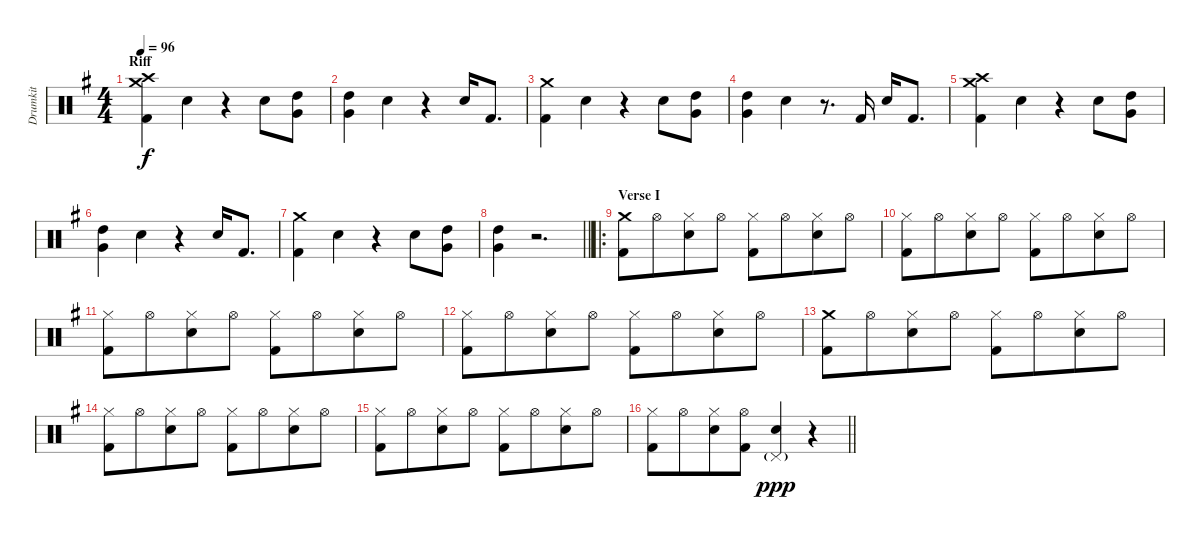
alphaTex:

\track ("Drumkit" "Drumkit") {instrument percussion}
\staff {score}
\articulation defaults
\ts (4 4)
\section ("" "Riff")
\tempo 96
\clef neutral
\ks eminor
("Crash medium (hit)" "Crash high (hit)" "Kick (hit) 2").4{dy f} "Electric Snare (hit)".4 r.4 "Electric Snare (hit)".8 ("Very Low Tom (hit)" "High Tom (hit)").8 |
("Very Low Tom (hit)" "High Tom (hit)").4 "Electric Snare (hit)".4 r.4 "Electric Snare (hit)".16 "Kick (hit) 2".8{d} |
("Crash medium (hit)" "Kick (hit) 2").4 "Electric Snare (hit)".4 r.4 "Electric Snare (hit)".8 ("Very Low Tom (hit)" "High Tom (hit)").8 |
("Very Low Tom (hit)" "High Tom (hit)").4 "Electric Snare (hit)".4 r.8{d} "Kick (hit) 2".16 "Electric Snare (hit)".16 "Kick (hit) 2".8{d} |
("Crash medium (hit)" "Crash high (hit)" "Kick (hit) 2").4 "Electric Snare (hit)".4 r.4 "Electric Snare (hit)".8 ("Very Low Tom (hit)" "High Tom (hit)").8 |
("Very Low Tom (hit)" "High Tom (hit)").4 "Electric Snare (hit)".4 r.4 "Electric Snare (hit)".16 "Kick (hit) 2".8{d} |
("Crash medium (hit)" "Kick (hit) 2").4 "Electric Snare (hit)".4 r.4 "Electric Snare (hit)".8 ("Very Low Tom (hit)" "High Tom (hit)").8 |
\barLineRight lightlight
("Very Low Tom (hit)" "High Tom (hit)").4 r.2{d} |
\ro
\section ("" "Verse I")
("Crash medium (hit)" "Kick (hit) 2").8 "Hi-Hat (open)".8{beam merge} ("Hi-Hat (closed)" "Electric Snare (hit)").8 "Hi-Hat (open)".8 ("Hi-Hat (closed)" "Kick (hit) 2").8 "Hi-Hat (open)".8{beam merge} ("Hi-Hat (closed)" "Electric Snare (hit)").8 "Hi-Hat (open)".8 |
("Hi-Hat (closed)" "Kick (hit) 2").8 "Hi-Hat (open)".8{beam merge} ("Hi-Hat (closed)" "Electric Snare (hit)").8 "Hi-Hat (open)".8 ("Hi-Hat (closed)" "Kick (hit) 2").8 "Hi-Hat (open)".8{beam merge} ("Hi-Hat (closed)" "Electric Snare (hit)").8 "Hi-Hat (open)".8 |
("Hi-Hat (closed)" "Kick (hit) 2").8 "Hi-Hat (open)".8{beam merge} ("Hi-Hat (closed)" "Electric Snare (hit)").8 "Hi-Hat (open)".8 ("Hi-Hat (closed)" "Kick (hit) 2").8 "Hi-Hat (open)".8{beam merge} ("Hi-Hat (closed)" "Electric Snare (hit)").8 "Hi-Hat (open)".8 |
("Hi-Hat (closed)" "Kick (hit) 2").8 "Hi-Hat (open)".8{beam merge} ("Hi-Hat (closed)" "Electric Snare (hit)").8 "Hi-Hat (open)".8 ("Hi-Hat (closed)" "Kick (hit) 2").8 "Hi-Hat (open)".8{beam merge} ("Hi-Hat (closed)" "Electric Snare (hit)").8 "Hi-Hat (open)".8 |
("Crash medium (hit)" "Kick (hit) 2").8 "Hi-Hat (open)".8{beam merge} ("Hi-Hat (closed)" "Electric Snare (hit)").8 "Hi-Hat (open)".8 ("Hi-Hat (closed)" "Kick (hit) 2").8 "Hi-Hat (open)".8{beam merge} ("Hi-Hat (closed)" "Electric Snare (hit)").8 "Hi-Hat (open)".8 |
("Hi-Hat (closed)" "Kick (hit) 2").8 "Hi-Hat (open)".8{beam merge} ("Hi-Hat (closed)" "Electric Snare (hit)").8 "Hi-Hat (open)".8 ("Hi-Hat (closed)" "Kick (hit) 2").8 "Hi-Hat (open)".8{beam merge} ("Hi-Hat (closed)" "Electric Snare (hit)").8 "Hi-Hat (open)".8 |
("Hi-Hat (closed)" "Kick (hit) 2").8 "Hi-Hat (open)".8{beam merge} ("Hi-Hat (closed)" "Electric Snare (hit)").8 "Hi-Hat (open)".8 ("Hi-Hat (closed)" "Kick (hit) 2").8 "Hi-Hat (open)".8{beam merge} ("Hi-Hat (closed)" "Electric Snare (hit)").8 "Hi-Hat (open)".8 |
\barLineRight lightlight
("Hi-Hat (closed)" "Kick (hit) 2").8 "Hi-Hat (open)".8{beam merge} ("Hi-Hat (closed)" "Electric Snare (hit)").8 ("Hi-Hat (open)" "Kick (hit) 2").8 ("Pedal Hi-Hat (hit)"{g} "Electric Snare (hit)").4{dy ppp} r.4
